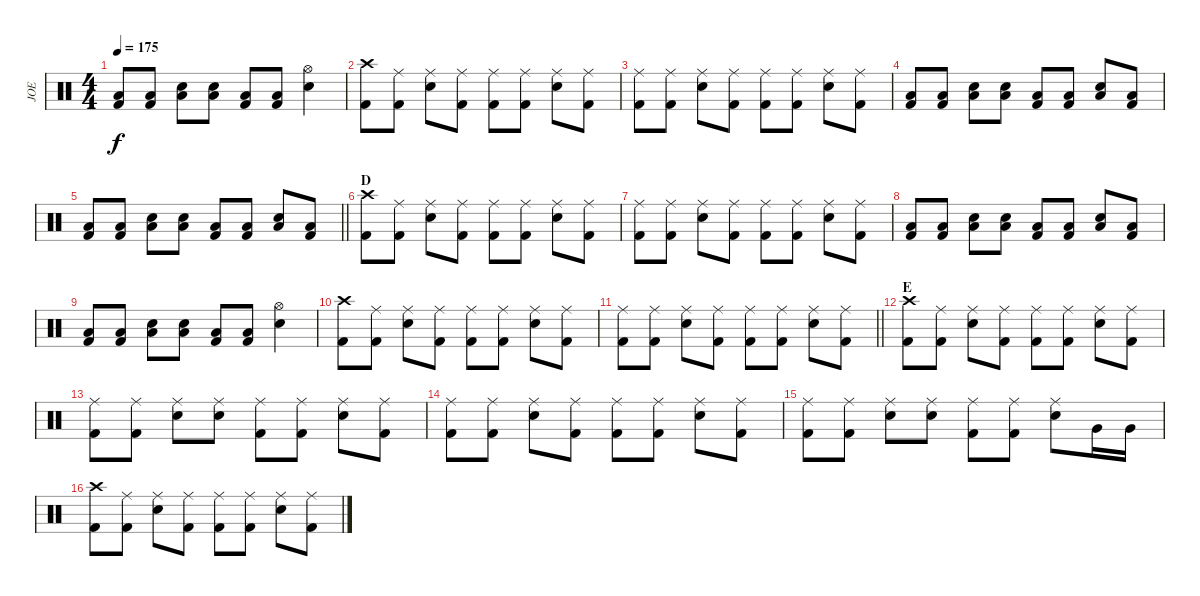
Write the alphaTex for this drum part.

\track ("JOE" "JOE") {instrument percussion}
\staff {score}
\articulation defaults
\ts (4 4)
\tempo 175
\clef neutral
\ks c
("Low Floor Tom (hit)" "Kick (hit) 2").8{dy f} ("Low Floor Tom (hit)" "Kick (hit) 2").8 ("Low Floor Tom (hit)" "Snare (hit) 2").8 ("Low Floor Tom (hit)" "Snare (hit) 2").8 ("Low Floor Tom (hit)" "Kick (hit) 2").8 ("Low Floor Tom (hit)" "Kick (hit) 2").8 ("Hi-Hat (open)" "Snare (hit) 2").4 |
("Crash high (hit)" "Kick (hit) 2").8 ("Ride (middle)" "Kick (hit) 2").8 ("Ride (middle)" "Snare (hit) 2").8 ("Ride (middle)" "Kick (hit) 2").8 ("Ride (middle)" "Kick (hit) 2").8 ("Ride (middle)" "Kick (hit) 2").8 ("Ride (middle)" "Snare (hit) 2").8 ("Ride (middle)" "Kick (hit) 2").8 |
("Ride (middle)" "Kick (hit) 2").8 ("Ride (middle)" "Kick (hit) 2").8 ("Ride (middle)" "Snare (hit) 2").8 ("Ride (middle)" "Kick (hit) 2").8 ("Ride (middle)" "Kick (hit) 2").8 ("Ride (middle)" "Kick (hit) 2").8 ("Ride (middle)" "Snare (hit) 2").8 ("Ride (middle)" "Kick (hit) 2").8 |
("Kick (hit) 2" "Low Floor Tom (hit)").8 ("Kick (hit) 2" "Low Floor Tom (hit)").8 ("Snare (hit) 2" "Low Floor Tom (hit)").8 ("Snare (hit) 2" "Low Floor Tom (hit)").8 ("Kick (hit) 2" "Low Floor Tom (hit)").8 ("Kick (hit) 2" "Low Floor Tom (hit)").8 ("Snare (hit) 2" "Low Floor Tom (hit)").8 ("Kick (hit) 2" "Low Floor Tom (hit)").8 |
\barLineRight lightlight
("Kick (hit) 2" "Low Floor Tom (hit)").8 ("Kick (hit) 2" "Low Floor Tom (hit)").8 ("Snare (hit) 2" "Low Floor Tom (hit)").8 ("Snare (hit) 2" "Low Floor Tom (hit)").8 ("Kick (hit) 2" "Low Floor Tom (hit)").8 ("Kick (hit) 2" "Low Floor Tom (hit)").8 ("Snare (hit) 2" "Low Floor Tom (hit)").8 ("Kick (hit) 2" "Low Floor Tom (hit)").8 |
\section ("" "D")
("Crash high (hit)" "Kick (hit) 2").8 ("Ride (middle)" "Kick (hit) 2").8 ("Ride (middle)" "Snare (hit) 2").8 ("Ride (middle)" "Kick (hit) 2").8 ("Ride (middle)" "Kick (hit) 2").8 ("Ride (middle)" "Kick (hit) 2").8 ("Ride (middle)" "Snare (hit) 2").8 ("Ride (middle)" "Kick (hit) 2").8 |
("Ride (middle)" "Kick (hit) 2").8 ("Ride (middle)" "Kick (hit) 2").8 ("Ride (middle)" "Snare (hit) 2").8 ("Ride (middle)" "Kick (hit) 2").8 ("Ride (middle)" "Kick (hit) 2").8 ("Ride (middle)" "Kick (hit) 2").8 ("Ride (middle)" "Snare (hit) 2").8 ("Ride (middle)" "Kick (hit) 2").8 |
("Low Floor Tom (hit)" "Kick (hit) 2").8 ("Low Floor Tom (hit)" "Kick (hit) 2").8 ("Low Floor Tom (hit)" "Snare (hit) 2").8 ("Low Floor Tom (hit)" "Snare (hit) 2").8 ("Low Floor Tom (hit)" "Kick (hit) 2").8 ("Low Floor Tom (hit)" "Kick (hit) 2").8 ("Low Floor Tom (hit)" "Snare (hit) 2").8 ("Low Floor Tom (hit)" "Kick (hit) 2").8 |
("Low Floor Tom (hit)" "Kick (hit) 2").8 ("Low Floor Tom (hit)" "Kick (hit) 2").8 ("Low Floor Tom (hit)" "Snare (hit) 2").8 ("Low Floor Tom (hit)" "Snare (hit) 2").8 ("Low Floor Tom (hit)" "Kick (hit) 2").8 ("Low Floor Tom (hit)" "Kick (hit) 2").8 ("Hi-Hat (open)" "Snare (hit) 2").4 |
("Crash high (hit)" "Kick (hit) 2").8 ("Ride (middle)" "Kick (hit) 2").8 ("Ride (middle)" "Snare (hit) 2").8 ("Ride (middle)" "Kick (hit) 2").8 ("Ride (middle)" "Kick (hit) 2").8 ("Ride (middle)" "Kick (hit) 2").8 ("Ride (middle)" "Snare (hit) 2").8 ("Ride (middle)" "Kick (hit) 2").8 |
\barLineRight lightlight
("Ride (middle)" "Kick (hit) 2").8 ("Ride (middle)" "Kick (hit) 2").8 ("Ride (middle)" "Snare (hit) 2").8 ("Ride (middle)" "Kick (hit) 2").8 ("Ride (middle)" "Kick (hit) 2").8 ("Ride (middle)" "Kick (hit) 2").8 ("Ride (middle)" "Snare (hit) 2").8 ("Ride (middle)" "Kick (hit) 2").8 |
\section ("" "E")
("Crash high (hit)" "Kick (hit) 2").8 ("Ride (middle)" "Kick (hit) 2").8 ("Ride (middle)" "Snare (hit) 2").8 ("Ride (middle)" "Kick (hit) 2").8 ("Ride (middle)" "Kick (hit) 2").8 ("Ride (middle)" "Kick (hit) 2").8 ("Ride (middle)" "Snare (hit) 2").8 ("Ride (middle)" "Kick (hit) 2").8 |
("Ride (middle)" "Kick (hit) 2").8 ("Ride (middle)" "Kick (hit) 2").8 ("Ride (middle)" "Snare (hit) 2").8 ("Ride (middle)" "Snare (hit) 2").8 ("Ride (middle)" "Kick (hit) 2").8 ("Ride (middle)" "Kick (hit) 2").8 ("Ride (middle)" "Snare (hit) 2").8 ("Ride (middle)" "Kick (hit) 2").8 |
("Ride (middle)" "Kick (hit) 2").8 ("Ride (middle)" "Kick (hit) 2").8 ("Ride (middle)" "Snare (hit) 2").8 ("Ride (middle)" "Kick (hit) 2").8 ("Ride (middle)" "Kick (hit) 2").8 ("Ride (middle)" "Kick (hit) 2").8 ("Ride (middle)" "Snare (hit) 2").8 ("Ride (middle)" "Kick (hit) 2").8 |
("Ride (middle)" "Kick (hit) 2").8 ("Ride (middle)" "Kick (hit) 2").8 ("Ride (middle)" "Snare (hit) 2").8 ("Ride (middle)" "Snare (hit) 2").8 ("Ride (middle)" "Kick (hit) 2").8 ("Ride (middle)" "Kick (hit) 2").8 ("Ride (middle)" "Snare (hit) 2").8 "Very Low Tom (hit)".16 "Very Low Tom (hit)".16 |
("Crash high (hit)" "Kick (hit) 2").8 ("Ride (middle)" "Kick (hit) 2").8 ("Ride (middle)" "Snare (hit) 2").8 ("Ride (middle)" "Kick (hit) 2").8 ("Ride (middle)" "Kick (hit) 2").8 ("Ride (middle)" "Kick (hit) 2").8 ("Ride (middle)" "Snare (hit) 2").8 ("Ride (middle)" "Kick (hit) 2").8
